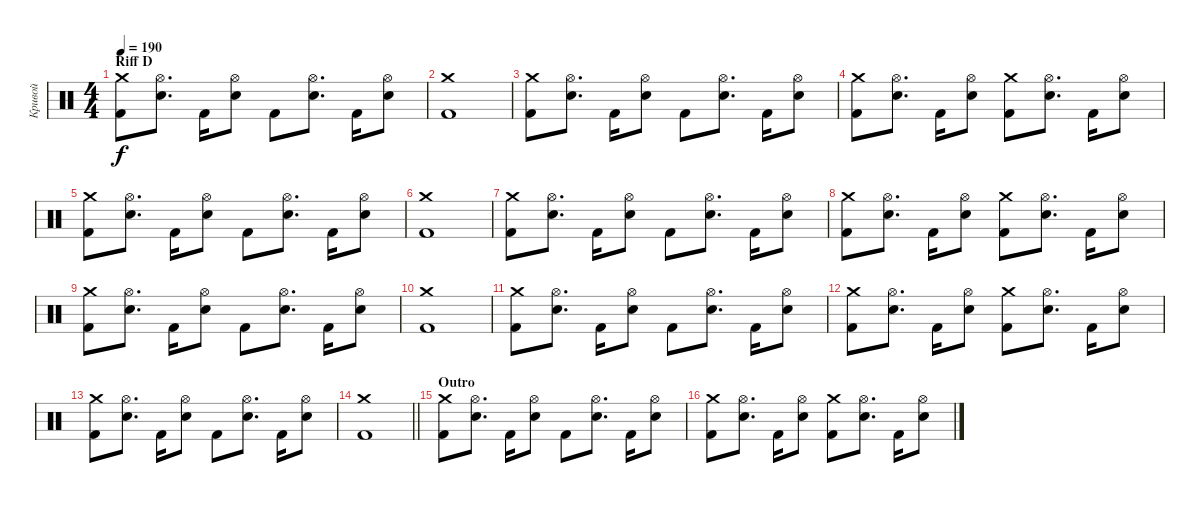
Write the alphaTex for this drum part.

\track ("Кривой" "Кривой") {instrument percussion}
\staff {score}
\articulation defaults
\ts (4 4)
\section ("" "Riff D")
\tempo 190
\clef neutral
\ks c
("Crash medium (hit)" "Kick (hit) 2").8{dy f} ("Hi-Hat (open)" "Electric Snare (hit)").8{d} "Kick (hit) 2".16 ("Hi-Hat (open)" "Electric Snare (hit)").8 "Kick (hit) 2".8 ("Hi-Hat (open)" "Electric Snare (hit)").8{d} "Kick (hit) 2".16 ("Hi-Hat (open)" "Electric Snare (hit)").8 |
("Crash medium (hit)" "Kick (hit) 2").1 |
("Crash medium (hit)" "Kick (hit) 2").8 ("Hi-Hat (open)" "Electric Snare (hit)").8{d} "Kick (hit) 2".16 ("Hi-Hat (open)" "Electric Snare (hit)").8 "Kick (hit) 2".8 ("Hi-Hat (open)" "Electric Snare (hit)").8{d} "Kick (hit) 2".16 ("Hi-Hat (open)" "Electric Snare (hit)").8 |
("Crash medium (hit)" "Kick (hit) 2").8 ("Hi-Hat (open)" "Electric Snare (hit)").8{d} "Kick (hit) 2".16 ("Hi-Hat (open)" "Electric Snare (hit)").8 ("Crash medium (hit)" "Kick (hit) 2").8 ("Hi-Hat (open)" "Electric Snare (hit)").8{d} "Kick (hit) 2".16 ("Hi-Hat (open)" "Electric Snare (hit)").8 |
("Crash medium (hit)" "Kick (hit) 2").8 ("Hi-Hat (open)" "Electric Snare (hit)").8{d} "Kick (hit) 2".16 ("Hi-Hat (open)" "Electric Snare (hit)").8 "Kick (hit) 2".8 ("Hi-Hat (open)" "Electric Snare (hit)").8{d} "Kick (hit) 2".16 ("Hi-Hat (open)" "Electric Snare (hit)").8 |
("Crash medium (hit)" "Kick (hit) 2").1 |
("Crash medium (hit)" "Kick (hit) 2").8 ("Hi-Hat (open)" "Electric Snare (hit)").8{d} "Kick (hit) 2".16 ("Hi-Hat (open)" "Electric Snare (hit)").8 "Kick (hit) 2".8 ("Hi-Hat (open)" "Electric Snare (hit)").8{d} "Kick (hit) 2".16 ("Hi-Hat (open)" "Electric Snare (hit)").8 |
("Crash medium (hit)" "Kick (hit) 2").8 ("Hi-Hat (open)" "Electric Snare (hit)").8{d} "Kick (hit) 2".16 ("Hi-Hat (open)" "Electric Snare (hit)").8 ("Crash medium (hit)" "Kick (hit) 2").8 ("Hi-Hat (open)" "Electric Snare (hit)").8{d} "Kick (hit) 2".16 ("Hi-Hat (open)" "Electric Snare (hit)").8 |
("Crash medium (hit)" "Kick (hit) 2").8 ("Hi-Hat (open)" "Electric Snare (hit)").8{d} "Kick (hit) 2".16 ("Hi-Hat (open)" "Electric Snare (hit)").8 "Kick (hit) 2".8 ("Hi-Hat (open)" "Electric Snare (hit)").8{d} "Kick (hit) 2".16 ("Hi-Hat (open)" "Electric Snare (hit)").8 |
("Crash medium (hit)" "Kick (hit) 2").1 |
("Crash medium (hit)" "Kick (hit) 2").8 ("Hi-Hat (open)" "Electric Snare (hit)").8{d} "Kick (hit) 2".16 ("Hi-Hat (open)" "Electric Snare (hit)").8 "Kick (hit) 2".8 ("Hi-Hat (open)" "Electric Snare (hit)").8{d} "Kick (hit) 2".16 ("Hi-Hat (open)" "Electric Snare (hit)").8 |
("Crash medium (hit)" "Kick (hit) 2").8 ("Hi-Hat (open)" "Electric Snare (hit)").8{d} "Kick (hit) 2".16 ("Hi-Hat (open)" "Electric Snare (hit)").8 ("Crash medium (hit)" "Kick (hit) 2").8 ("Hi-Hat (open)" "Electric Snare (hit)").8{d} "Kick (hit) 2".16 ("Hi-Hat (open)" "Electric Snare (hit)").8 |
("Crash medium (hit)" "Kick (hit) 2").8 ("Hi-Hat (open)" "Electric Snare (hit)").8{d} "Kick (hit) 2".16 ("Hi-Hat (open)" "Electric Snare (hit)").8 "Kick (hit) 2".8 ("Hi-Hat (open)" "Electric Snare (hit)").8{d} "Kick (hit) 2".16 ("Hi-Hat (open)" "Electric Snare (hit)").8 |
\barLineRight lightlight
("Crash medium (hit)" "Kick (hit) 2").1 |
\section ("" "Outro")
("Crash medium (hit)" "Kick (hit) 2").8 ("Hi-Hat (open)" "Electric Snare (hit)").8{d} "Kick (hit) 2".16 ("Hi-Hat (open)" "Electric Snare (hit)").8 "Kick (hit) 2".8 ("Hi-Hat (open)" "Electric Snare (hit)").8{d} "Kick (hit) 2".16 ("Hi-Hat (open)" "Electric Snare (hit)").8 |
("Crash medium (hit)" "Kick (hit) 2").8 ("Hi-Hat (open)" "Electric Snare (hit)").8{d} "Kick (hit) 2".16 ("Hi-Hat (open)" "Electric Snare (hit)").8 ("Crash medium (hit)" "Kick (hit) 2").8 ("Hi-Hat (open)" "Electric Snare (hit)").8{d} "Kick (hit) 2".16 ("Hi-Hat (open)" "Electric Snare (hit)").8
